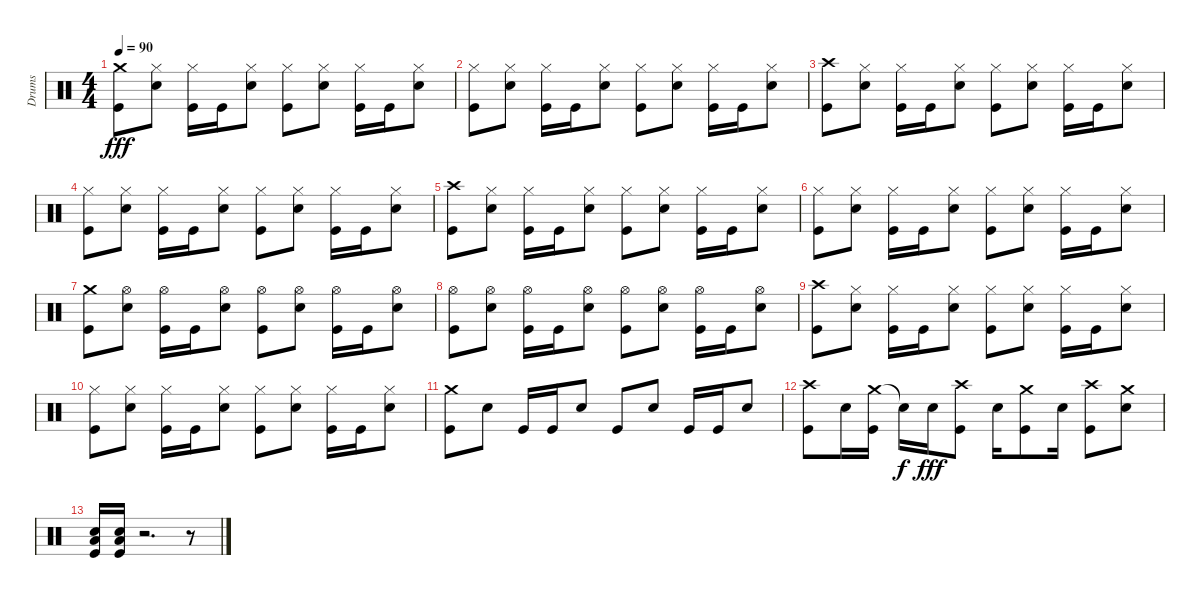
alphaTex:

\track ("Drums" "Drums") {instrument percussion}
\staff {score}
\articulation defaults
\ts (4 4)
\tempo 90
\clef neutral
\ks c
("Crash medium (hit)" "Kick (hit)").8{dy fff} ("Hi-Hat (closed)" "Snare (hit) 2").8 ("Hi-Hat (closed)" "Kick (hit)").16 "Kick (hit)".16 ("Hi-Hat (closed)" "Snare (hit) 2").8 ("Hi-Hat (closed)" "Kick (hit)").8 ("Hi-Hat (closed)" "Snare (hit) 2").8 ("Hi-Hat (closed)" "Kick (hit)").16 "Kick (hit)".16 ("Hi-Hat (closed)" "Snare (hit) 2").8 |
("Hi-Hat (closed)" "Kick (hit)").8 ("Hi-Hat (closed)" "Snare (hit) 2").8 ("Hi-Hat (closed)" "Kick (hit)").16 "Kick (hit)".16 ("Hi-Hat (closed)" "Snare (hit) 2").8 ("Hi-Hat (closed)" "Kick (hit)").8 ("Hi-Hat (closed)" "Snare (hit) 2").8 ("Hi-Hat (closed)" "Kick (hit)").16 "Kick (hit)".16 ("Hi-Hat (closed)" "Snare (hit) 2").8 |
("Crash high (hit)" "Kick (hit)").8 ("Hi-Hat (closed)" "Snare (hit) 2").8 ("Hi-Hat (closed)" "Kick (hit)").16 "Kick (hit)".16 ("Hi-Hat (closed)" "Snare (hit) 2").8 ("Hi-Hat (closed)" "Kick (hit)").8 ("Hi-Hat (closed)" "Snare (hit) 2").8 ("Hi-Hat (closed)" "Kick (hit)").16 "Kick (hit)".16 ("Hi-Hat (closed)" "Snare (hit) 2").8 |
("Hi-Hat (closed)" "Kick (hit)").8 ("Hi-Hat (closed)" "Snare (hit) 2").8 ("Hi-Hat (closed)" "Kick (hit)").16 "Kick (hit)".16 ("Hi-Hat (closed)" "Snare (hit) 2").8 ("Hi-Hat (closed)" "Kick (hit)").8 ("Hi-Hat (closed)" "Snare (hit) 2").8 ("Hi-Hat (closed)" "Kick (hit)").16 "Kick (hit)".16 ("Hi-Hat (closed)" "Snare (hit) 2").8 |
("Crash high (hit)" "Kick (hit)").8 ("Hi-Hat (closed)" "Snare (hit) 2").8 ("Hi-Hat (closed)" "Kick (hit)").16 "Kick (hit)".16 ("Hi-Hat (closed)" "Snare (hit) 2").8 ("Hi-Hat (closed)" "Kick (hit)").8 ("Hi-Hat (closed)" "Snare (hit) 2").8 ("Hi-Hat (closed)" "Kick (hit)").16 "Kick (hit)".16 ("Hi-Hat (closed)" "Snare (hit) 2").8 |
("Hi-Hat (closed)" "Kick (hit)").8 ("Hi-Hat (closed)" "Snare (hit) 2").8 ("Hi-Hat (closed)" "Kick (hit)").16 "Kick (hit)".16 ("Hi-Hat (closed)" "Snare (hit) 2").8 ("Hi-Hat (closed)" "Kick (hit)").8 ("Hi-Hat (closed)" "Snare (hit) 2").8 ("Hi-Hat (closed)" "Kick (hit)").16 "Kick (hit)".16 ("Hi-Hat (closed)" "Snare (hit) 2").8 |
("Crash medium (hit)" "Kick (hit)").8 ("Hi-Hat (open)" "Snare (hit) 2").8 ("Hi-Hat (open)" "Kick (hit)").16 "Kick (hit)".16 ("Hi-Hat (open)" "Snare (hit) 2").8 ("Hi-Hat (open)" "Kick (hit)").8 ("Hi-Hat (open)" "Snare (hit) 2").8 ("Hi-Hat (open)" "Kick (hit)").16 "Kick (hit)".16 ("Hi-Hat (open)" "Snare (hit) 2").8 |
("Hi-Hat (open)" "Kick (hit)").8 ("Hi-Hat (open)" "Snare (hit) 2").8 ("Hi-Hat (open)" "Kick (hit)").16 "Kick (hit)".16 ("Hi-Hat (open)" "Snare (hit) 2").8 ("Hi-Hat (open)" "Kick (hit)").8 ("Hi-Hat (open)" "Snare (hit) 2").8 ("Hi-Hat (open)" "Kick (hit)").16 "Kick (hit)".16 ("Hi-Hat (open)" "Snare (hit) 2").8 |
("Crash high (hit)" "Kick (hit)").8 ("Hi-Hat (closed)" "Snare (hit) 2").8 ("Hi-Hat (closed)" "Kick (hit)").16 "Kick (hit)".16 ("Hi-Hat (closed)" "Snare (hit) 2").8 ("Hi-Hat (closed)" "Kick (hit)").8 ("Hi-Hat (closed)" "Snare (hit) 2").8 ("Hi-Hat (closed)" "Kick (hit)").16 "Kick (hit)".16 ("Hi-Hat (closed)" "Snare (hit) 2").8 |
("Hi-Hat (closed)" "Kick (hit)").8 ("Hi-Hat (closed)" "Snare (hit) 2").8 ("Hi-Hat (closed)" "Kick (hit)").16 "Kick (hit)".16 ("Hi-Hat (closed)" "Snare (hit) 2").8 ("Hi-Hat (closed)" "Kick (hit)").8 ("Hi-Hat (closed)" "Snare (hit) 2").8 ("Hi-Hat (closed)" "Kick (hit)").16 "Kick (hit)".16 ("Hi-Hat (closed)" "Snare (hit) 2").8 |
("Crash medium (hit)" "Kick (hit)").8 "Snare (hit) 2".8 "Kick (hit)".16 "Kick (hit)".16 "Snare (hit) 2".8 "Kick (hit)".8 "Snare (hit) 2".8 "Kick (hit)".16 "Kick (hit)".16 "Snare (hit) 2".8 |
("Crash high (hit)" "Kick (hit)").8 "Snare (hit) 2".16 ("Crash medium (hit)" "Kick (hit)").16 "Snare (hit)"{t}.16{dy f} "Snare (hit) 2".16{dy fff} ("Crash high (hit)" "Kick (hit)").8 "Snare (hit) 2".16 ("Crash medium (hit)" "Kick (hit)").8 "Snare (hit) 2".16 ("Crash high (hit)" "Kick (hit)").8 ("Crash medium (hit)" "Snare (hit) 2").8 |
("Low Floor Tom (hit)" "Snare (hit) 2" "Kick (hit)").16 ("Low Floor Tom (hit)" "Snare (hit) 2" "Kick (hit)").16 r.2{d} r.8
